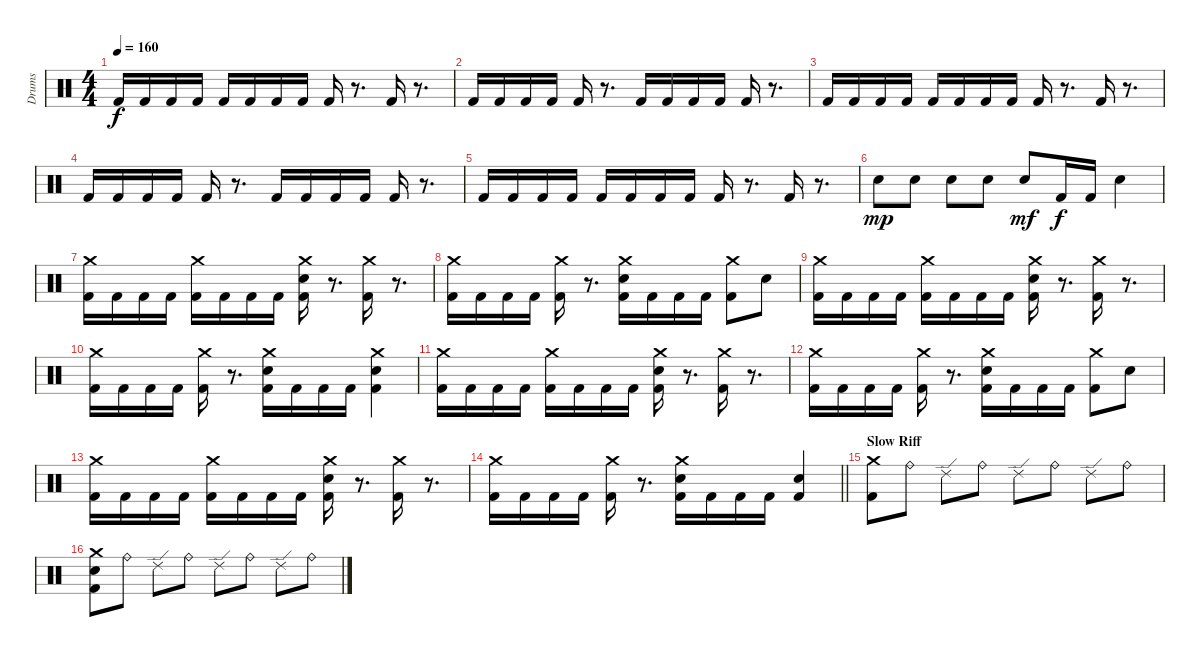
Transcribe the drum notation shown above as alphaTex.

\track ("Drums" "Drums") {instrument percussion}
\staff {score}
\articulation defaults
\ts (4 4)
\tempo 160
\clef neutral
\ks c "Kick (hit) 2".16{dy f} "Kick (hit) 2".16 "Kick (hit) 2".16 "Kick (hit) 2".16 "Kick (hit) 2".16 "Kick (hit) 2".16 "Kick (hit) 2".16 "Kick (hit) 2".16 "Kick (hit) 2".16
r.8{d} "Kick (hit) 2".16 r.8{d} |
"Kick (hit) 2".16 "Kick (hit) 2".16 "Kick (hit) 2".16 "Kick (hit) 2".16 "Kick (hit) 2".16 r.8{d} "Kick (hit) 2".16 "Kick (hit) 2".16 "Kick (hit) 2".16 "Kick (hit) 2".16 "Kick (hit) 2".16 r.8{d} |
"Kick (hit) 2".16 "Kick (hit) 2".16 "Kick (hit) 2".16 "Kick (hit) 2".16 "Kick (hit) 2".16 "Kick (hit) 2".16 "Kick (hit) 2".16 "Kick (hit) 2".16 "Kick (hit) 2".16 r.8{d} "Kick (hit) 2".16 r.8{d} |
"Kick (hit) 2".16 "Kick (hit) 2".16 "Kick (hit) 2".16 "Kick (hit) 2".16 "Kick (hit) 2".16 r.8{d} "Kick (hit) 2".16 "Kick (hit) 2".16 "Kick (hit) 2".16 "Kick (hit) 2".16 "Kick (hit) 2".16 r.8{d} |
"Kick (hit) 2".16 "Kick (hit) 2".16 "Kick (hit) 2".16 "Kick (hit) 2".16 "Kick (hit) 2".16 "Kick (hit) 2".16 "Kick (hit) 2".16 "Kick (hit) 2".16 "Kick (hit) 2".16 r.8{d} "Kick (hit) 2".16 r.8{d} |
"Snare (hit) 2".8{dy mp} "Snare (hit) 2".8 "Snare (hit) 2".8 "Snare (hit) 2".8 "Snare (hit) 2".8{dy mf} "Kick (hit) 2".16{dy f} "Kick (hit) 2".16 "Snare (hit) 2".4 |
("Crash medium (hit)" "Kick (hit) 2").16 "Kick (hit) 2".16 "Kick (hit) 2".16 "Kick (hit) 2".16 ("Crash medium (hit)" "Kick (hit) 2").16 "Kick (hit) 2".16 "Kick (hit) 2".16 "Kick (hit) 2".16 ("Crash medium (hit)" "Snare (hit) 2" "Kick (hit) 2").16 r.8{d} ("Crash medium (hit)" "Kick (hit) 2").16 r.8{d} |
("Crash medium (hit)" "Kick (hit) 2").16 "Kick (hit) 2".16 "Kick (hit) 2".16 "Kick (hit) 2".16 ("Crash medium (hit)" "Kick (hit) 2").16 r.8{d} ("Crash medium (hit)" "Snare (hit) 2" "Kick (hit) 2").16 "Kick (hit) 2".16 "Kick (hit) 2".16 "Kick (hit) 2".16 ("Crash medium (hit)" "Kick (hit) 2").8 "Snare (hit) 2".8 |
("Crash medium (hit)" "Kick (hit) 2").16 "Kick (hit) 2".16 "Kick (hit) 2".16 "Kick (hit) 2".16 ("Crash medium (hit)" "Kick (hit) 2").16 "Kick (hit) 2".16 "Kick (hit) 2".16 "Kick (hit) 2".16 ("Crash medium (hit)" "Snare (hit) 2" "Kick (hit) 2").16 r.8{d} ("Crash medium (hit)" "Kick (hit) 2").16 r.8{d} |
("Crash medium (hit)" "Kick (hit) 2").16 "Kick (hit) 2".16 "Kick (hit) 2".16 "Kick (hit) 2".16 ("Crash medium (hit)" "Kick (hit) 2").16 r.8{d} ("Crash medium (hit)" "Snare (hit) 2" "Kick (hit) 2").16 "Kick (hit) 2".16 "Kick (hit) 2".16 "Kick (hit) 2".16 ("Crash medium (hit)" "Snare (hit) 2" "Kick (hit) 2").4 |
("Crash medium (hit)" "Kick (hit) 2").16 "Kick (hit) 2".16 "Kick (hit) 2".16 "Kick (hit) 2".16 ("Crash medium (hit)" "Kick (hit) 2").16 "Kick (hit) 2".16 "Kick (hit) 2".16 "Kick (hit) 2".16 ("Crash medium (hit)" "Snare (hit) 2" "Kick (hit) 2").16 r.8{d} ("Crash medium (hit)" "Kick (hit) 2").16 r.8{d} |
("Crash medium (hit)" "Kick (hit) 2").16 "Kick (hit) 2".16 "Kick (hit) 2".16 "Kick (hit) 2".16 ("Crash medium (hit)" "Kick (hit) 2").16 r.8{d} ("Crash medium (hit)" "Snare (hit) 2" "Kick (hit) 2").16 "Kick (hit) 2".16 "Kick (hit) 2".16 "Kick (hit) 2".16 ("Crash medium (hit)" "Kick (hit) 2").8 "Snare (hit) 2".8 |
("Crash medium (hit)" "Kick (hit) 2").16 "Kick (hit) 2".16 "Kick (hit) 2".16 "Kick (hit) 2".16 ("Crash medium (hit)" "Kick (hit) 2").16 "Kick (hit) 2".16 "Kick (hit) 2".16 "Kick (hit) 2".16 ("Crash medium (hit)" "Snare (hit) 2" "Kick (hit) 2").16 r.8{d} ("Crash medium (hit)" "Kick (hit) 2").16 r.8{d} |
\barLineRight lightlight
("Crash medium (hit)" "Kick (hit) 2").16 "Kick (hit) 2".16 "Kick (hit) 2".16 "Kick (hit) 2".16 ("Crash medium (hit)" "Kick (hit) 2").16 r.8{d} ("Crash medium (hit)" "Snare (hit) 2" "Kick (hit) 2").16 "Kick (hit) 2".16 "Kick (hit) 2".16 "Kick (hit) 2".16 ("Snare (hit) 2" "Kick (hit) 2").4 |
\section ("" "Slow Riff")
("Crash medium (hit)" "Kick (hit) 2").8 "Ride (bell)".8 "Ride (edge) 2".8 "Ride (bell)".8 "Ride (edge) 2".8 "Ride (bell)".8 "Ride (edge) 2".8 "Ride (bell)".8 |
("Crash medium (hit)" "Snare (hit) 2" "Kick (hit) 2").8 "Ride (bell)".8 "Ride (edge) 2".8 "Ride (bell)".8 "Ride (edge) 2".8 "Ride (bell)".8 "Ride (edge) 2".8 "Ride (bell)".8
